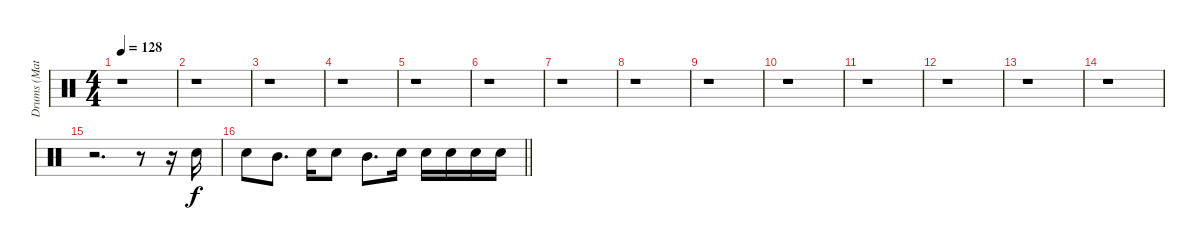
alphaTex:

\track ("Drums (Matt Sorum)" "Drums (Mat") {instrument percussion}
\staff {score}
\articulation defaults
\ts (4 4)
\tempo 128
\clef neutral
\ks c
r.1{dy f} |
r.1 |
r.1 |
r.1 |
r.1 |
r.1 |
r.1 |
r.1 |
r.1 |
r.1 |
r.1 |
r.1 |
r.1 |
r.1 |
r.2{d} r.8 r.16 "Snare (hit) 2".16 |
\barLineRight lightlight "Snare (hit) 2".8 "Mid Tom (hit)".8{d} "Snare (hit) 2".16 "Snare (hit) 2".8 "Mid Tom (hit)".8{d} "Snare (hit) 2".16 "Snare (hit) 2".16 "Snare (hit) 2".16 "Snare (hit) 2".16 "Snare (hit) 2".16
